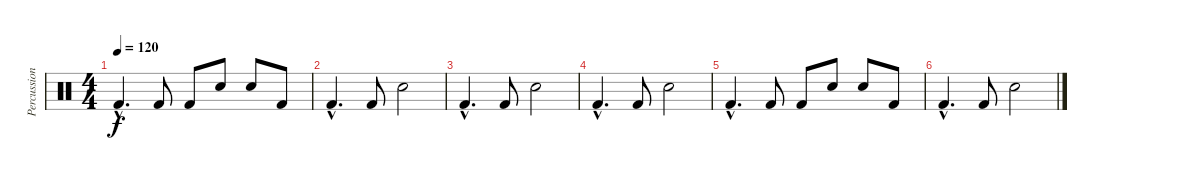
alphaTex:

\track ("Percussioni" "Percussion") {instrument percussion}
\staff {score}
\articulation defaults
\ts (4 4)
\tempo 120
\clef neutral
\ks c "Kick (hit) 2"{hac}.4{d dy f} "Kick (hit) 2".8 "Kick (hit) 2".8 "Snare (hit) 2".8 "Snare (hit) 2".8 "Kick (hit) 2".8
|
"Kick (hit) 2"{hac}.4{d} "Kick (hit) 2".8 "Snare (hit) 2".2 |
"Kick (hit) 2"{hac}.4{d} "Kick (hit) 2".8 "Snare (hit) 2".2 |
"Kick (hit) 2"{hac}.4{d} "Kick (hit) 2".8 "Snare (hit) 2".2 |
"Kick (hit) 2"{hac}.4{d} "Kick (hit) 2".8 "Kick (hit) 2".8 "Snare (hit) 2".8 "Snare (hit) 2".8 "Kick (hit) 2".8 |
"Kick (hit) 2"{hac}.4{d} "Kick (hit) 2".8 "Snare (hit) 2".2
